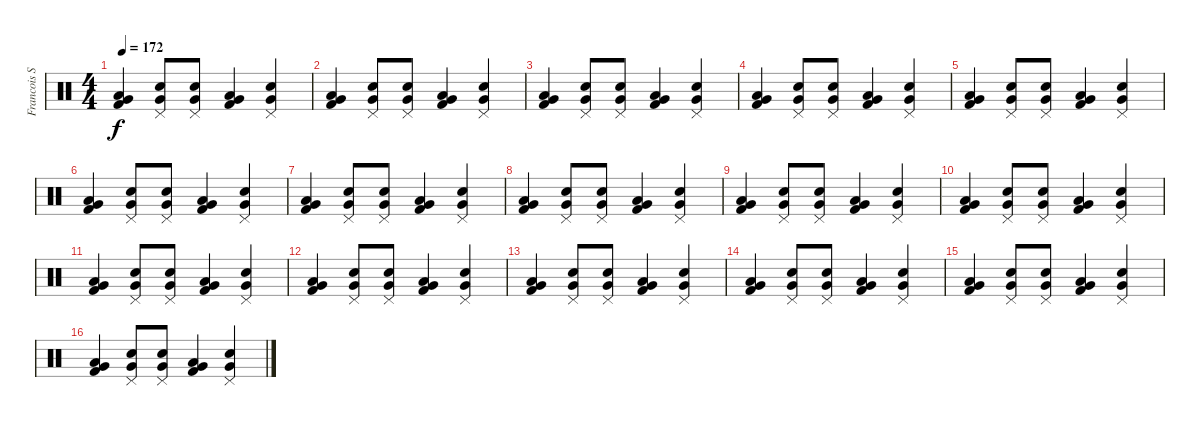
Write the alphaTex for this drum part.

\track ("Francois Soulier" "Francois S") {instrument percussion}
\staff {score}
\articulation defaults
\ts (4 4)
\tempo 172
\clef neutral
\ks c
("Kick (hit) 2" "Very Low Tom (hit)" "Low Floor Tom (hit)").4{dy f} ("Very Low Tom (hit)" "Electric Snare (hit)" "Pedal Hi-Hat (hit)").8 ("Very Low Tom (hit)" "Electric Snare (hit)" "Pedal Hi-Hat (hit)").8 ("Kick (hit) 2" "Very Low Tom (hit)" "Low Floor Tom (hit)").4 ("Very Low Tom (hit)" "Electric Snare (hit)" "Pedal Hi-Hat (hit)").4 |
("Kick (hit) 2" "Very Low Tom (hit)" "Low Floor Tom (hit)").4 ("Very Low Tom (hit)" "Electric Snare (hit)" "Pedal Hi-Hat (hit)").8 ("Very Low Tom (hit)" "Electric Snare (hit)" "Pedal Hi-Hat (hit)").8 ("Kick (hit) 2" "Very Low Tom (hit)" "Low Floor Tom (hit)").4 ("Very Low Tom (hit)" "Electric Snare (hit)" "Pedal Hi-Hat (hit)").4 |
("Kick (hit) 2" "Very Low Tom (hit)" "Low Floor Tom (hit)").4 ("Very Low Tom (hit)" "Electric Snare (hit)" "Pedal Hi-Hat (hit)").8 ("Very Low Tom (hit)" "Electric Snare (hit)" "Pedal Hi-Hat (hit)").8 ("Kick (hit) 2" "Very Low Tom (hit)" "Low Floor Tom (hit)").4 ("Very Low Tom (hit)" "Electric Snare (hit)" "Pedal Hi-Hat (hit)").4 |
("Kick (hit) 2" "Very Low Tom (hit)" "Low Floor Tom (hit)").4 ("Very Low Tom (hit)" "Electric Snare (hit)" "Pedal Hi-Hat (hit)").8 ("Very Low Tom (hit)" "Electric Snare (hit)" "Pedal Hi-Hat (hit)").8 ("Kick (hit) 2" "Very Low Tom (hit)" "Low Floor Tom (hit)").4 ("Very Low Tom (hit)" "Electric Snare (hit)" "Pedal Hi-Hat (hit)").4 |
("Kick (hit) 2" "Very Low Tom (hit)" "Low Floor Tom (hit)").4 ("Very Low Tom (hit)" "Electric Snare (hit)" "Pedal Hi-Hat (hit)").8 ("Very Low Tom (hit)" "Electric Snare (hit)" "Pedal Hi-Hat (hit)").8 ("Kick (hit) 2" "Very Low Tom (hit)" "Low Floor Tom (hit)").4 ("Very Low Tom (hit)" "Electric Snare (hit)" "Pedal Hi-Hat (hit)").4 |
("Kick (hit) 2" "Very Low Tom (hit)" "Low Floor Tom (hit)").4 ("Very Low Tom (hit)" "Electric Snare (hit)" "Pedal Hi-Hat (hit)").8 ("Very Low Tom (hit)" "Electric Snare (hit)" "Pedal Hi-Hat (hit)").8 ("Kick (hit) 2" "Very Low Tom (hit)" "Low Floor Tom (hit)").4 ("Very Low Tom (hit)" "Electric Snare (hit)" "Pedal Hi-Hat (hit)").4 |
("Kick (hit) 2" "Very Low Tom (hit)" "Low Floor Tom (hit)").4 ("Very Low Tom (hit)" "Electric Snare (hit)" "Pedal Hi-Hat (hit)").8 ("Very Low Tom (hit)" "Electric Snare (hit)" "Pedal Hi-Hat (hit)").8 ("Kick (hit) 2" "Very Low Tom (hit)" "Low Floor Tom (hit)").4 ("Very Low Tom (hit)" "Electric Snare (hit)" "Pedal Hi-Hat (hit)").4 |
("Kick (hit) 2" "Very Low Tom (hit)" "Low Floor Tom (hit)").4 ("Very Low Tom (hit)" "Electric Snare (hit)" "Pedal Hi-Hat (hit)").8 ("Very Low Tom (hit)" "Electric Snare (hit)" "Pedal Hi-Hat (hit)").8 ("Kick (hit) 2" "Very Low Tom (hit)" "Low Floor Tom (hit)").4 ("Very Low Tom (hit)" "Electric Snare (hit)" "Pedal Hi-Hat (hit)").4 |
("Kick (hit) 2" "Very Low Tom (hit)" "Low Floor Tom (hit)").4 ("Very Low Tom (hit)" "Electric Snare (hit)" "Pedal Hi-Hat (hit)").8 ("Very Low Tom (hit)" "Electric Snare (hit)" "Pedal Hi-Hat (hit)").8 ("Kick (hit) 2" "Very Low Tom (hit)" "Low Floor Tom (hit)").4 ("Very Low Tom (hit)" "Electric Snare (hit)" "Pedal Hi-Hat (hit)").4 |
("Kick (hit) 2" "Very Low Tom (hit)" "Low Floor Tom (hit)").4 ("Very Low Tom (hit)" "Electric Snare (hit)" "Pedal Hi-Hat (hit)").8 ("Very Low Tom (hit)" "Electric Snare (hit)" "Pedal Hi-Hat (hit)").8 ("Kick (hit) 2" "Very Low Tom (hit)" "Low Floor Tom (hit)").4 ("Very Low Tom (hit)" "Electric Snare (hit)" "Pedal Hi-Hat (hit)").4 |
("Kick (hit) 2" "Very Low Tom (hit)" "Low Floor Tom (hit)").4 ("Very Low Tom (hit)" "Electric Snare (hit)" "Pedal Hi-Hat (hit)").8 ("Very Low Tom (hit)" "Electric Snare (hit)" "Pedal Hi-Hat (hit)").8 ("Kick (hit) 2" "Very Low Tom (hit)" "Low Floor Tom (hit)").4 ("Very Low Tom (hit)" "Electric Snare (hit)" "Pedal Hi-Hat (hit)").4 |
("Kick (hit) 2" "Very Low Tom (hit)" "Low Floor Tom (hit)").4 ("Very Low Tom (hit)" "Electric Snare (hit)" "Pedal Hi-Hat (hit)").8 ("Very Low Tom (hit)" "Electric Snare (hit)" "Pedal Hi-Hat (hit)").8 ("Kick (hit) 2" "Very Low Tom (hit)" "Low Floor Tom (hit)").4 ("Very Low Tom (hit)" "Electric Snare (hit)" "Pedal Hi-Hat (hit)").4 |
("Kick (hit) 2" "Very Low Tom (hit)" "Low Floor Tom (hit)").4 ("Very Low Tom (hit)" "Electric Snare (hit)" "Pedal Hi-Hat (hit)").8 ("Very Low Tom (hit)" "Electric Snare (hit)" "Pedal Hi-Hat (hit)").8 ("Kick (hit) 2" "Very Low Tom (hit)" "Low Floor Tom (hit)").4 ("Very Low Tom (hit)" "Electric Snare (hit)" "Pedal Hi-Hat (hit)").4 |
("Kick (hit) 2" "Very Low Tom (hit)" "Low Floor Tom (hit)").4 ("Very Low Tom (hit)" "Electric Snare (hit)" "Pedal Hi-Hat (hit)").8 ("Very Low Tom (hit)" "Electric Snare (hit)" "Pedal Hi-Hat (hit)").8 ("Kick (hit) 2" "Very Low Tom (hit)" "Low Floor Tom (hit)").4 ("Very Low Tom (hit)" "Electric Snare (hit)" "Pedal Hi-Hat (hit)").4 |
("Kick (hit) 2" "Very Low Tom (hit)" "Low Floor Tom (hit)").4 ("Very Low Tom (hit)" "Electric Snare (hit)" "Pedal Hi-Hat (hit)").8 ("Very Low Tom (hit)" "Electric Snare (hit)" "Pedal Hi-Hat (hit)").8 ("Kick (hit) 2" "Very Low Tom (hit)" "Low Floor Tom (hit)").4 ("Very Low Tom (hit)" "Electric Snare (hit)" "Pedal Hi-Hat (hit)").4 |
("Kick (hit) 2" "Very Low Tom (hit)" "Low Floor Tom (hit)").4 ("Very Low Tom (hit)" "Electric Snare (hit)" "Pedal Hi-Hat (hit)").8 ("Very Low Tom (hit)" "Electric Snare (hit)" "Pedal Hi-Hat (hit)").8 ("Kick (hit) 2" "Very Low Tom (hit)" "Low Floor Tom (hit)").4 ("Very Low Tom (hit)" "Electric Snare (hit)" "Pedal Hi-Hat (hit)").4
